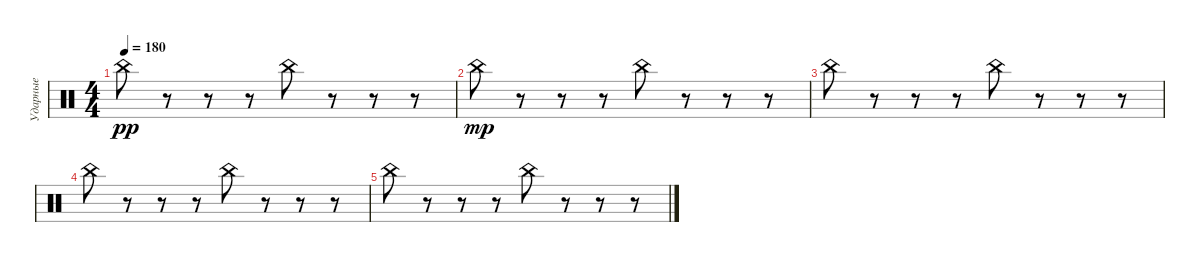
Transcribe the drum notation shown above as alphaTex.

\track ("Ударные" "Ударные") {instrument percussion}
\staff {score}
\articulation defaults
\ts (4 4)
\tempo 180
\clef neutral
\ks c "China (hit)".8{dy pp}
r.8 r.8 r.8 "China (hit)".8 r.8 r.8 r.8 |
"China (hit)".8{dy mp} r.8 r.8 r.8 "China (hit)".8 r.8 r.8 r.8 |
"China (hit)".8 r.8 r.8 r.8 "China (hit)".8 r.8 r.8 r.8 |
"China (hit)".8 r.8 r.8 r.8 "China (hit)".8 r.8 r.8 r.8 |
"China (hit)".8 r.8 r.8 r.8 "China (hit)".8 r.8 r.8 r.8
